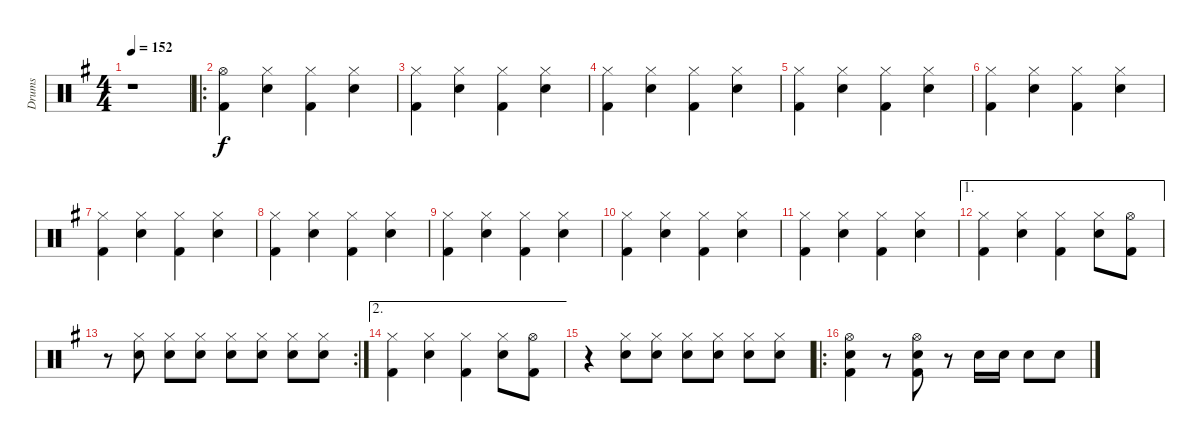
\track ("Drums" "Drums") {instrument percussion}
\staff {score}
\articulation defaults
\ts (4 4)
\tempo 152
\clef neutral
\ks g
r.1{dy f} |
\ro
("Hi-Hat (open)" "Kick (hit) 2").4 ("Hi-Hat (closed)" "Snare (hit) 2").4 ("Hi-Hat (closed)" "Kick (hit) 2").4 ("Hi-Hat (closed)" "Snare (hit) 2").4 |
("Hi-Hat (closed)" "Kick (hit) 2").4 ("Hi-Hat (closed)" "Snare (hit) 2").4 ("Hi-Hat (closed)" "Kick (hit) 2").4 ("Hi-Hat (closed)" "Snare (hit) 2").4 |
("Hi-Hat (closed)" "Kick (hit) 2").4 ("Hi-Hat (closed)" "Snare (hit) 2").4 ("Hi-Hat (closed)" "Kick (hit) 2").4 ("Hi-Hat (closed)" "Snare (hit) 2").4 |
("Hi-Hat (closed)" "Kick (hit) 2").4 ("Hi-Hat (closed)" "Snare (hit) 2").4 ("Hi-Hat (closed)" "Kick (hit) 2").4 ("Hi-Hat (closed)" "Snare (hit) 2").4 |
("Hi-Hat (closed)" "Kick (hit) 2").4 ("Hi-Hat (closed)" "Snare (hit) 2").4 ("Hi-Hat (closed)" "Kick (hit) 2").4 ("Hi-Hat (closed)" "Snare (hit) 2").4 |
("Hi-Hat (closed)" "Kick (hit) 2").4 ("Hi-Hat (closed)" "Snare (hit) 2").4 ("Hi-Hat (closed)" "Kick (hit) 2").4 ("Hi-Hat (closed)" "Snare (hit) 2").4 |
("Hi-Hat (closed)" "Kick (hit) 2").4 ("Hi-Hat (closed)" "Snare (hit) 2").4 ("Hi-Hat (closed)" "Kick (hit) 2").4 ("Hi-Hat (closed)" "Snare (hit) 2").4 |
("Hi-Hat (closed)" "Kick (hit) 2").4 ("Hi-Hat (closed)" "Snare (hit) 2").4 ("Hi-Hat (closed)" "Kick (hit) 2").4 ("Hi-Hat (closed)" "Snare (hit) 2").4 |
("Hi-Hat (closed)" "Kick (hit) 2").4 ("Hi-Hat (closed)" "Snare (hit) 2").4 ("Hi-Hat (closed)" "Kick (hit) 2").4 ("Hi-Hat (closed)" "Snare (hit) 2").4 |
("Hi-Hat (closed)" "Kick (hit) 2").4 ("Hi-Hat (closed)" "Snare (hit) 2").4 ("Hi-Hat (closed)" "Kick (hit) 2").4 ("Hi-Hat (closed)" "Snare (hit) 2").4 |
\ae 1
("Hi-Hat (closed)" "Kick (hit) 2").4 ("Hi-Hat (closed)" "Snare (hit) 2").4 ("Hi-Hat (closed)" "Kick (hit) 2").4 ("Hi-Hat (closed)" "Snare (hit) 2").8 ("Hi-Hat (open)" "Kick (hit) 2").8 |
\rc 2
r.8 ("Hi-Hat (closed)" "Snare (hit) 2").8 ("Hi-Hat (closed)" "Snare (hit) 2").8 ("Hi-Hat (closed)" "Snare (hit) 2").8 ("Hi-Hat (closed)" "Snare (hit) 2").8 ("Hi-Hat (closed)" "Snare (hit) 2").8 ("Hi-Hat (closed)" "Snare (hit) 2").8 ("Hi-Hat (closed)" "Snare (hit) 2").8 |
\ae 2
("Hi-Hat (closed)" "Kick (hit) 2").4 ("Hi-Hat (closed)" "Snare (hit) 2").4 ("Hi-Hat (closed)" "Kick (hit) 2").4 ("Hi-Hat (closed)" "Snare (hit) 2").8 ("Hi-Hat (open)" "Kick (hit) 2").8 |
r.4 ("Hi-Hat (closed)" "Snare (hit) 2").8 ("Hi-Hat (closed)" "Snare (hit) 2").8 ("Hi-Hat (closed)" "Snare (hit) 2").8 ("Hi-Hat (closed)" "Snare (hit) 2").8 ("Hi-Hat (closed)" "Snare (hit) 2").8 ("Hi-Hat (closed)" "Snare (hit) 2").8 |
\ro
("Hi-Hat (open)" "Snare (hit) 2" "Kick (hit) 2").4 r.8 ("Hi-Hat (open)" "Snare (hit) 2" "Kick (hit) 2").8 r.8 "Snare (hit) 2".16 "Snare (hit) 2".16 "Snare (hit) 2".8 "Snare (hit) 2".8
